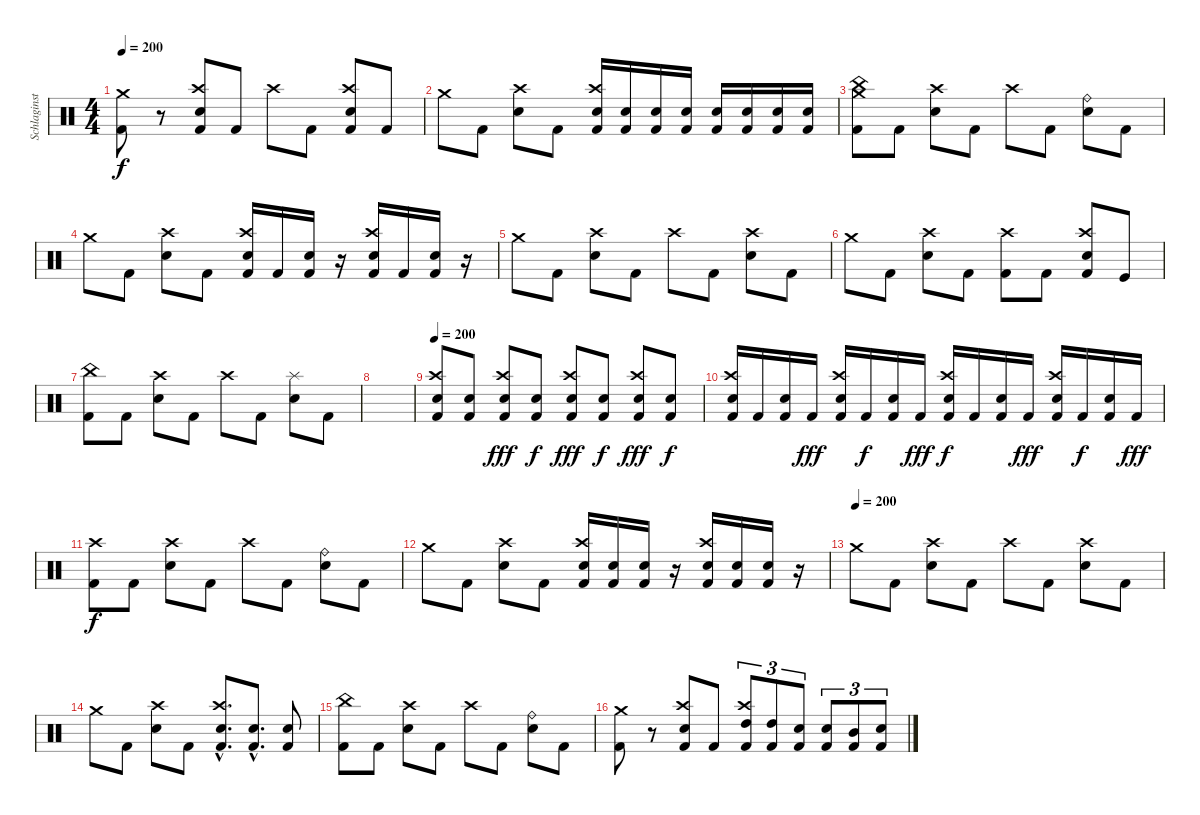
\track ("Schlaginstrumente - Auswahl" "Schlaginst") {instrument percussion}
\staff {score}
\articulation defaults
\ts (4 4)
\tempo 200
\clef neutral
\ks c
("Crash medium (hit)" "Kick (hit) 2").8{dy f} r.8 ("Crash high (hit)" "Electric Snare (hit)" "Kick (hit) 2").8 "Kick (hit) 2".8 "Crash high (hit)".8 "Kick (hit) 2".8 ("Crash high (hit)" "Electric Snare (hit)" "Kick (hit) 2").8 "Kick (hit) 2".8 |
"Crash medium (hit)".8 "Kick (hit) 2".8 ("Crash high (hit)" "Electric Snare (hit)").8 "Kick (hit) 2".8 ("Crash high (hit)" "Electric Snare (hit)" "Kick (hit) 2").16 ("Electric Snare (hit)" "Kick (hit) 2").16 ("Electric Snare (hit)" "Kick (hit) 2").16 ("Electric Snare (hit)" "Kick (hit) 2").16 ("Electric Snare (hit)" "Kick (hit) 2").16 ("Electric Snare (hit)" "Kick (hit) 2").16 ("Electric Snare (hit)" "Kick (hit) 2").16 ("Electric Snare (hit)" "Kick (hit) 2").16 |
("China (hit)" "Crash medium (hit)" "Kick (hit) 2").8 "Kick (hit) 2".8 ("Crash high (hit)" "Electric Snare (hit)").8 "Kick (hit) 2".8 "Crash high (hit)".8 "Kick (hit) 2".8 ("Ride (bell)" "Electric Snare (hit)").8 "Kick (hit) 2".8 |
"Crash medium (hit)".8 "Kick (hit) 2".8 ("Crash high (hit)" "Electric Snare (hit)").8 "Kick (hit) 2".8 ("Crash high (hit)" "Electric Snare (hit)" "Kick (hit) 2").16 "Kick (hit) 2".16 ("Electric Snare (hit)" "Kick (hit) 2").16 r.16 ("Crash high (hit)" "Electric Snare (hit)" "Kick (hit) 2").16 "Kick (hit) 2".16 ("Electric Snare (hit)" "Kick (hit) 2").16 r.16 |
"Crash medium (hit)".8 "Kick (hit) 2".8 ("Crash high (hit)" "Electric Snare (hit)").8 "Kick (hit) 2".8 "Crash high (hit)".8 "Kick (hit) 2".8 ("Crash high (hit)" "Electric Snare (hit)").8 "Kick (hit) 2".8 |
"Crash medium (hit)".8 "Kick (hit) 2".8 ("Crash high (hit)" "Electric Snare (hit)").8 "Kick (hit) 2".8 ("Crash high (hit)" "Kick (hit) 2").8 "Kick (hit) 2".8 ("Crash high (hit)" "Electric Snare (hit)" "Kick (hit) 2").8 "Kick (hit)".8 |
("China (hit)" "Kick (hit) 2").8 "Kick (hit) 2".8 ("Crash high (hit)" "Electric Snare (hit)").8 "Kick (hit) 2".8 "Crash high (hit)".8 "Kick (hit) 2".8 ("Splash (hit)" "Electric Snare (hit)").8 "Kick (hit) 2".8 |
|
\tempo 200
("Crash high (hit)" "Electric Snare (hit)" "Kick (hit) 2").8 ("Electric Snare (hit)" "Kick (hit) 2").8 ("Crash high (hit)" "Electric Snare (hit)" "Kick (hit) 2").8{dy fff} ("Electric Snare (hit)" "Kick (hit) 2").8{dy f} ("Crash high (hit)" "Electric Snare (hit)" "Kick (hit) 2").8{dy fff} ("Electric Snare (hit)" "Kick (hit) 2").8{dy f} ("Crash high (hit)" "Electric Snare (hit)" "Kick (hit) 2").8{dy fff} ("Electric Snare (hit)" "Kick (hit) 2").8{dy f} |
("Crash high (hit)" "Electric Snare (hit)" "Kick (hit) 2").16 "Kick (hit) 2".16 ("Electric Snare (hit)" "Kick (hit) 2").16 "Kick (hit) 2".16{dy fff} ("Crash high (hit)" "Electric Snare (hit)" "Kick (hit) 2").16 "Kick (hit) 2".16{dy f} ("Electric Snare (hit)" "Kick (hit) 2").16 "Kick (hit) 2".16{dy fff} ("Crash high (hit)" "Electric Snare (hit)" "Kick (hit) 2").16{dy f} "Kick (hit) 2".16 ("Electric Snare (hit)" "Kick (hit) 2").16 "Kick (hit) 2".16{dy fff} ("Crash high (hit)" "Electric Snare (hit)" "Kick (hit) 2").16 "Kick (hit) 2".16{dy f} ("Electric Snare (hit)" "Kick (hit) 2").16 "Kick (hit) 2".16{dy fff} |
("Crash high (hit)" "Kick (hit) 2").8{dy f} "Kick (hit) 2".8 ("Crash high (hit)" "Electric Snare (hit)").8 "Kick (hit) 2".8 "Crash high (hit)".8 "Kick (hit) 2".8 ("Ride (bell)" "Electric Snare (hit)").8 "Kick (hit) 2".8 |
"Crash medium (hit)".8 "Kick (hit) 2".8 ("Crash high (hit)" "Electric Snare (hit)").8 "Kick (hit) 2".8 ("Crash high (hit)" "Electric Snare (hit)" "Kick (hit) 2").16 ("Electric Snare (hit)" "Kick (hit) 2").16 ("Electric Snare (hit)" "Kick (hit) 2").16 r.16 ("Crash high (hit)" "Electric Snare (hit)" "Kick (hit) 2").16 ("Electric Snare (hit)" "Kick (hit) 2").16 ("Electric Snare (hit)" "Kick (hit) 2").16 r.16 |
\tempo (200)
"Crash medium (hit)".8 "Kick (hit) 2".8 ("Crash high (hit)" "Electric Snare (hit)").8 "Kick (hit) 2".8 "Crash high (hit)".8 "Kick (hit) 2".8 ("Crash high (hit)" "Electric Snare (hit)").8 "Kick (hit) 2".8 |
"Crash medium (hit)".8 "Kick (hit) 2".8 ("Crash high (hit)" "Electric Snare (hit)").8 "Kick (hit) 2".8 ("Crash high (hit)"{hac} "Electric Snare (hit)"{hac} "Kick (hit) 2"{hac}).8{d} ("Electric Snare (hit)"{hac} "Kick (hit) 2"{hac}).8{d} ("Electric Snare (hit)" "Kick (hit) 2").8 |
("China (hit)" "Kick (hit) 2").8 "Kick (hit) 2".8 ("Crash high (hit)" "Electric Snare (hit)").8 "Kick (hit) 2".8 "Crash high (hit)".8 "Kick (hit) 2".8 ("Ride (bell)" "Electric Snare (hit)").8 "Kick (hit) 2".8 |
("Crash medium (hit)" "Kick (hit) 2").8 r.8 ("Crash high (hit)" "Electric Snare (hit)" "Kick (hit) 2").8 "Kick (hit) 2".8 ("Crash high (hit)" "High Tom (hit)" "Kick (hit) 2").8{tu (3 2)} ("High Tom (hit)" "Kick (hit) 2").8{tu (3 2)} ("Electric Snare (hit)" "Kick (hit) 2").8{tu (3 2)} ("Electric Snare (hit)" "Kick (hit) 2").8{tu (3 2)} ("Mid Tom (hit)" "Kick (hit) 2").8{tu (3 2)} ("Electric Snare (hit)" "Kick (hit) 2").8{tu (3 2)}
